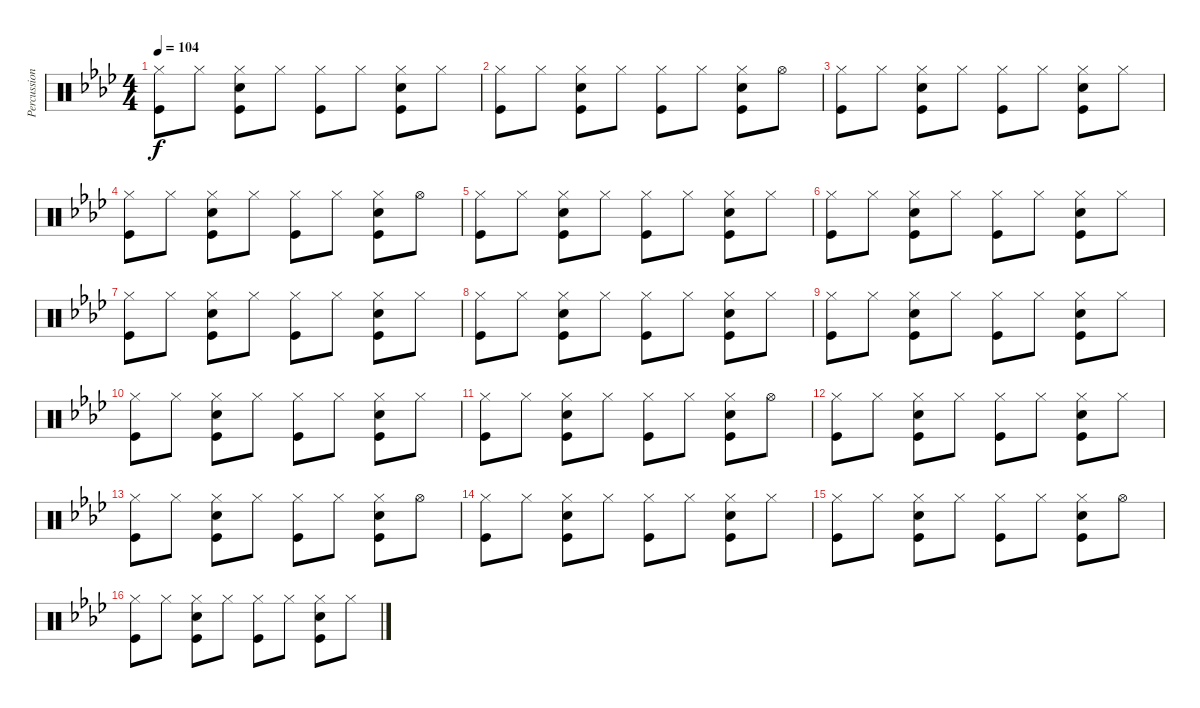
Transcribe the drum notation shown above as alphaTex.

\track ("Percussion" "Percussion") {instrument percussion}
\staff {score}
\articulation defaults
\ts (4 4)
\tempo 104
\clef neutral
\ks ab
("Hi-Hat (closed)" "Kick (hit)").8{dy f} "Hi-Hat (closed)".8 ("Hi-Hat (closed)" "Snare (hit) 2" "Kick (hit)").8 "Hi-Hat (closed)".8 ("Hi-Hat (closed)" "Kick (hit)").8 "Hi-Hat (closed)".8 ("Hi-Hat (closed)" "Snare (hit) 2" "Kick (hit)").8 "Hi-Hat (closed)".8 |
("Hi-Hat (closed)" "Kick (hit)").8 "Hi-Hat (closed)".8 ("Hi-Hat (closed)" "Snare (hit) 2" "Kick (hit)").8 "Hi-Hat (closed)".8 ("Hi-Hat (closed)" "Kick (hit)").8 "Hi-Hat (closed)".8 ("Hi-Hat (closed)" "Snare (hit) 2" "Kick (hit)").8 "Hi-Hat (open)".8 |
("Hi-Hat (closed)" "Kick (hit)").8 "Hi-Hat (closed)".8 ("Hi-Hat (closed)" "Snare (hit) 2" "Kick (hit)").8 "Hi-Hat (closed)".8 ("Hi-Hat (closed)" "Kick (hit)").8 "Hi-Hat (closed)".8 ("Hi-Hat (closed)" "Snare (hit) 2" "Kick (hit)").8 "Hi-Hat (closed)".8 |
("Hi-Hat (closed)" "Kick (hit)").8 "Hi-Hat (closed)".8 ("Hi-Hat (closed)" "Snare (hit) 2" "Kick (hit)").8 "Hi-Hat (closed)".8 ("Hi-Hat (closed)" "Kick (hit)").8 "Hi-Hat (closed)".8 ("Hi-Hat (closed)" "Snare (hit) 2" "Kick (hit)").8 "Hi-Hat (open)".8 |
("Hi-Hat (closed)" "Kick (hit)").8 "Hi-Hat (closed)".8 ("Hi-Hat (closed)" "Snare (hit) 2" "Kick (hit)").8 "Hi-Hat (closed)".8 ("Hi-Hat (closed)" "Kick (hit)").8 "Hi-Hat (closed)".8 ("Hi-Hat (closed)" "Snare (hit) 2" "Kick (hit)").8 "Hi-Hat (closed)".8 |
("Hi-Hat (closed)" "Kick (hit)").8 "Hi-Hat (closed)".8 ("Hi-Hat (closed)" "Snare (hit) 2" "Kick (hit)").8 "Hi-Hat (closed)".8 ("Hi-Hat (closed)" "Kick (hit)").8 "Hi-Hat (closed)".8 ("Hi-Hat (closed)" "Snare (hit) 2" "Kick (hit)").8 "Hi-Hat (closed)".8 |
("Hi-Hat (closed)" "Kick (hit)").8 "Hi-Hat (closed)".8 ("Hi-Hat (closed)" "Snare (hit) 2" "Kick (hit)").8 "Hi-Hat (closed)".8 ("Hi-Hat (closed)" "Kick (hit)").8 "Hi-Hat (closed)".8 ("Hi-Hat (closed)" "Snare (hit) 2" "Kick (hit)").8 "Hi-Hat (closed)".8 |
("Hi-Hat (closed)" "Kick (hit)").8 "Hi-Hat (closed)".8 ("Hi-Hat (closed)" "Snare (hit) 2" "Kick (hit)").8 "Hi-Hat (closed)".8 ("Hi-Hat (closed)" "Kick (hit)").8 "Hi-Hat (closed)".8 ("Hi-Hat (closed)" "Snare (hit) 2" "Kick (hit)").8 "Hi-Hat (closed)".8 |
("Hi-Hat (closed)" "Kick (hit)").8 "Hi-Hat (closed)".8 ("Hi-Hat (closed)" "Snare (hit) 2" "Kick (hit)").8 "Hi-Hat (closed)".8 ("Hi-Hat (closed)" "Kick (hit)").8 "Hi-Hat (closed)".8 ("Hi-Hat (closed)" "Snare (hit) 2" "Kick (hit)").8 "Hi-Hat (closed)".8 |
("Hi-Hat (closed)" "Kick (hit)").8 "Hi-Hat (closed)".8 ("Hi-Hat (closed)" "Snare (hit) 2" "Kick (hit)").8 "Hi-Hat (closed)".8 ("Hi-Hat (closed)" "Kick (hit)").8 "Hi-Hat (closed)".8 ("Hi-Hat (closed)" "Snare (hit) 2" "Kick (hit)").8 "Hi-Hat (closed)".8 |
("Hi-Hat (closed)" "Kick (hit)").8 "Hi-Hat (closed)".8 ("Hi-Hat (closed)" "Snare (hit) 2" "Kick (hit)").8 "Hi-Hat (closed)".8 ("Hi-Hat (closed)" "Kick (hit)").8 "Hi-Hat (closed)".8 ("Hi-Hat (closed)" "Snare (hit) 2" "Kick (hit)").8 "Hi-Hat (open)".8 |
("Hi-Hat (closed)" "Kick (hit)").8 "Hi-Hat (closed)".8 ("Hi-Hat (closed)" "Snare (hit) 2" "Kick (hit)").8 "Hi-Hat (closed)".8 ("Hi-Hat (closed)" "Kick (hit)").8 "Hi-Hat (closed)".8 ("Hi-Hat (closed)" "Snare (hit) 2" "Kick (hit)").8 "Hi-Hat (closed)".8 |
("Hi-Hat (closed)" "Kick (hit)").8 "Hi-Hat (closed)".8 ("Hi-Hat (closed)" "Snare (hit) 2" "Kick (hit)").8 "Hi-Hat (closed)".8 ("Hi-Hat (closed)" "Kick (hit)").8 "Hi-Hat (closed)".8 ("Hi-Hat (closed)" "Snare (hit) 2" "Kick (hit)").8 "Hi-Hat (open)".8 |
("Hi-Hat (closed)" "Kick (hit)").8 "Hi-Hat (closed)".8 ("Hi-Hat (closed)" "Snare (hit) 2" "Kick (hit)").8 "Hi-Hat (closed)".8 ("Hi-Hat (closed)" "Kick (hit)").8 "Hi-Hat (closed)".8 ("Hi-Hat (closed)" "Snare (hit) 2" "Kick (hit)").8 "Hi-Hat (closed)".8 |
("Hi-Hat (closed)" "Kick (hit)").8 "Hi-Hat (closed)".8 ("Hi-Hat (closed)" "Snare (hit) 2" "Kick (hit)").8 "Hi-Hat (closed)".8 ("Hi-Hat (closed)" "Kick (hit)").8 "Hi-Hat (closed)".8 ("Hi-Hat (closed)" "Snare (hit) 2" "Kick (hit)").8 "Hi-Hat (open)".8 |
("Hi-Hat (closed)" "Kick (hit)").8 "Hi-Hat (closed)".8 ("Hi-Hat (closed)" "Snare (hit) 2" "Kick (hit)").8 "Hi-Hat (closed)".8 ("Hi-Hat (closed)" "Kick (hit)").8 "Hi-Hat (closed)".8 ("Hi-Hat (closed)" "Snare (hit) 2" "Kick (hit)").8 "Hi-Hat (closed)".8
